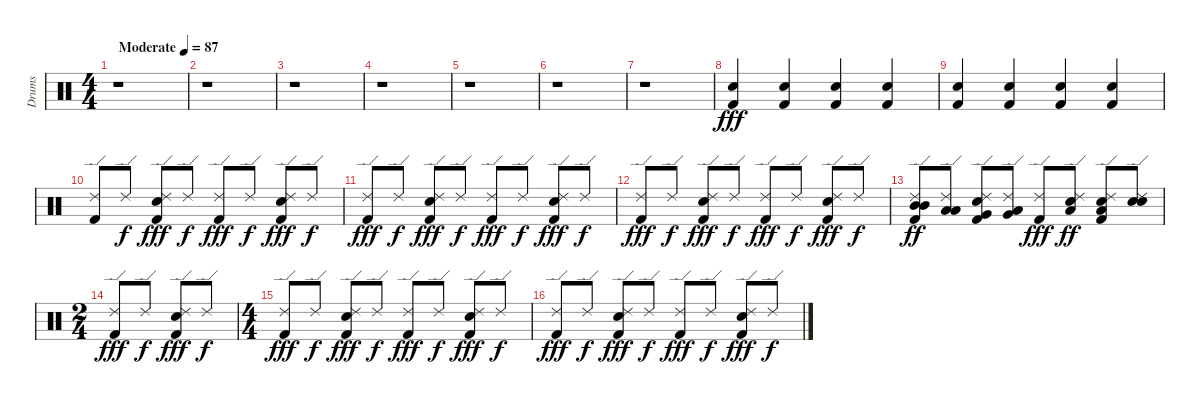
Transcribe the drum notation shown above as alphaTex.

\track ("Drums" "Drums") {instrument percussion}
\staff {score}
\articulation defaults
\ts (4 4)
\tempo (87 "Moderate")
\clef neutral
\ks c
r.1{dy fff} |
r.1 |
r.1 |
r.1 |
r.1 |
r.1 |
r.1 |
("Snare (hit) 2" "Kick (hit) 2").4 ("Snare (hit) 2" "Kick (hit) 2").4 ("Snare (hit) 2" "Kick (hit) 2").4 ("Snare (hit) 2" "Kick (hit) 2").4 |
("Snare (hit) 2" "Kick (hit) 2").4 ("Snare (hit) 2" "Kick (hit) 2").4 ("Snare (hit) 2" "Kick (hit) 2").4 ("Snare (hit) 2" "Kick (hit) 2").4 |
("Kick (hit) 2" "Ride (edge) 2").8 "Ride (edge) 2".8{dy f} ("Electric Snare (hit)" "Kick (hit) 2" "Ride (edge) 2").8{dy fff} "Ride (edge) 2".8{dy f} ("Kick (hit) 2" "Ride (edge) 2").8{dy fff} "Ride (edge) 2".8{dy f} ("Electric Snare (hit)" "Kick (hit) 2" "Ride (edge) 2").8{dy fff} "Ride (edge) 2".8{dy f} |
("Kick (hit) 2" "Ride (edge) 2").8{dy fff} "Ride (edge) 2".8{dy f} ("Electric Snare (hit)" "Kick (hit) 2" "Ride (edge) 2").8{dy fff} "Ride (edge) 2".8{dy f} ("Kick (hit) 2" "Ride (edge) 2").8{dy fff} "Ride (edge) 2".8{dy f} ("Electric Snare (hit)" "Kick (hit) 2" "Ride (edge) 2").8{dy fff} "Ride (edge) 2".8{dy f} |
("Kick (hit) 2" "Ride (edge) 2").8{dy fff} "Ride (edge) 2".8{dy f} ("Electric Snare (hit)" "Kick (hit) 2" "Ride (edge) 2").8{dy fff} "Ride (edge) 2".8{dy f} ("Kick (hit) 2" "Ride (edge) 2").8{dy fff} "Ride (edge) 2".8{dy f} ("Electric Snare (hit)" "Kick (hit) 2" "Ride (edge) 2").8{dy fff} "Ride (edge) 2".8{dy f} |
("Kick (hit) 2" "Ride (edge) 2" "Mid Tom (hit)" "Mid Tom (hit)").8{dy ff} ("Ride (edge) 2" "Low Tom (hit)" "Low Tom (hit)").8 ("Electric Snare (hit)" "Kick (hit) 2" "Ride (edge) 2" "Very Low Tom (hit)").8 ("Ride (edge) 2" "Low Floor Tom (hit)" "Very Low Tom (hit)").8 ("Kick (hit) 2" "Ride (edge) 2").8{dy fff} ("Electric Snare (hit)" "Ride (edge) 2" "Low Floor Tom (hit)").8{dy ff} ("Electric Snare (hit)" "Kick (hit) 2" "Ride (edge) 2" "Low Floor Tom (hit)").8 ("Electric Snare (hit)" "Ride (edge) 2" "Electric Snare (hit)").8 |
\ts (2 4)
("Kick (hit) 2" "Ride (edge) 2").8{dy fff} "Ride (edge) 2".8{dy f} ("Electric Snare (hit)" "Kick (hit) 2" "Ride (edge) 2").8{dy fff} "Ride (edge) 2".8{dy f} |
\ts (4 4)
("Kick (hit) 2" "Ride (edge) 2").8{dy fff} "Ride (edge) 2".8{dy f} ("Electric Snare (hit)" "Kick (hit) 2" "Ride (edge) 2").8{dy fff} "Ride (edge) 2".8{dy f} ("Kick (hit) 2" "Ride (edge) 2").8{dy fff} "Ride (edge) 2".8{dy f} ("Electric Snare (hit)" "Kick (hit) 2" "Ride (edge) 2").8{dy fff} "Ride (edge) 2".8{dy f} |
("Kick (hit) 2" "Ride (edge) 2").8{dy fff} "Ride (edge) 2".8{dy f} ("Electric Snare (hit)" "Kick (hit) 2" "Ride (edge) 2").8{dy fff} "Ride (edge) 2".8{dy f} ("Kick (hit) 2" "Ride (edge) 2").8{dy fff} "Ride (edge) 2".8{dy f} ("Electric Snare (hit)" "Kick (hit) 2" "Ride (edge) 2").8{dy fff} "Ride (edge) 2".8{dy f}
